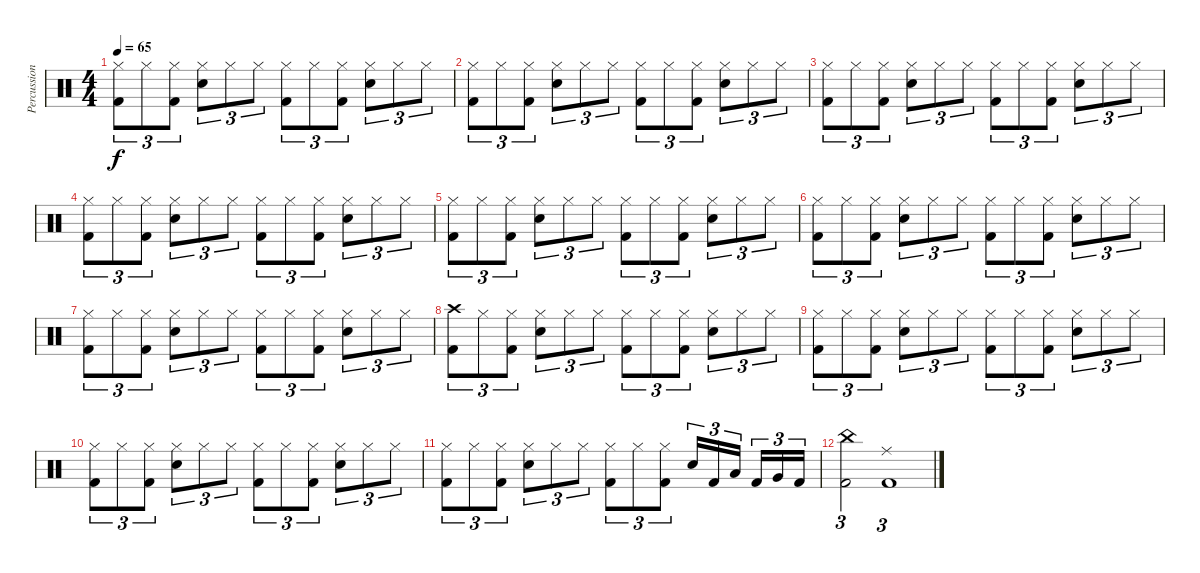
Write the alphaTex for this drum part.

\track ("Percussion" "Percussion") {instrument percussion}
\staff {score}
\articulation defaults
\ts (4 4)
\tempo 65
\clef neutral
\ks c
("Hi-Hat (closed)" "Kick (hit) 2").8{tu (3 2) dy f} "Hi-Hat (closed)".8{tu (3 2)} ("Hi-Hat (closed)" "Kick (hit) 2").8{tu (3 2)} ("Hi-Hat (closed)" "Snare (hit) 2").8{tu (3 2)} "Hi-Hat (closed)".8{tu (3 2)} "Hi-Hat (closed)".8{tu (3 2)} ("Hi-Hat (closed)" "Kick (hit) 2").8{tu (3 2)} "Hi-Hat (closed)".8{tu (3 2)} ("Hi-Hat (closed)" "Kick (hit) 2").8{tu (3 2)} ("Hi-Hat (closed)" "Snare (hit) 2").8{tu (3 2)} "Hi-Hat (closed)".8{tu (3 2)} "Hi-Hat (closed)".8{tu (3 2)} |
("Hi-Hat (closed)" "Kick (hit) 2").8{tu (3 2)} "Hi-Hat (closed)".8{tu (3 2)} ("Hi-Hat (closed)" "Kick (hit) 2").8{tu (3 2)} ("Hi-Hat (closed)" "Snare (hit) 2").8{tu (3 2)} "Hi-Hat (closed)".8{tu (3 2)} "Hi-Hat (closed)".8{tu (3 2)} ("Hi-Hat (closed)" "Kick (hit) 2").8{tu (3 2)} "Hi-Hat (closed)".8{tu (3 2)} ("Hi-Hat (closed)" "Kick (hit) 2").8{tu (3 2)} ("Hi-Hat (closed)" "Snare (hit) 2").8{tu (3 2)} "Hi-Hat (closed)".8{tu (3 2)} "Hi-Hat (closed)".8{tu (3 2)} |
("Hi-Hat (closed)" "Kick (hit) 2").8{tu (3 2)} "Hi-Hat (closed)".8{tu (3 2)} ("Hi-Hat (closed)" "Kick (hit) 2").8{tu (3 2)} ("Hi-Hat (closed)" "Snare (hit) 2").8{tu (3 2)} "Hi-Hat (closed)".8{tu (3 2)} "Hi-Hat (closed)".8{tu (3 2)} ("Hi-Hat (closed)" "Kick (hit) 2").8{tu (3 2)} "Hi-Hat (closed)".8{tu (3 2)} ("Hi-Hat (closed)" "Kick (hit) 2").8{tu (3 2)} ("Hi-Hat (closed)" "Snare (hit) 2").8{tu (3 2)} "Hi-Hat (closed)".8{tu (3 2)} "Hi-Hat (closed)".8{tu (3 2)} |
("Hi-Hat (closed)" "Kick (hit) 2").8{tu (3 2)} "Hi-Hat (closed)".8{tu (3 2)} ("Hi-Hat (closed)" "Kick (hit) 2").8{tu (3 2)} ("Hi-Hat (closed)" "Snare (hit) 2").8{tu (3 2)} "Hi-Hat (closed)".8{tu (3 2)} "Hi-Hat (closed)".8{tu (3 2)} ("Hi-Hat (closed)" "Kick (hit) 2").8{tu (3 2)} "Hi-Hat (closed)".8{tu (3 2)} ("Hi-Hat (closed)" "Kick (hit) 2").8{tu (3 2)} ("Hi-Hat (closed)" "Snare (hit) 2").8{tu (3 2)} "Hi-Hat (closed)".8{tu (3 2)} "Hi-Hat (closed)".8{tu (3 2)} |
("Hi-Hat (closed)" "Kick (hit) 2").8{tu (3 2)} "Hi-Hat (closed)".8{tu (3 2)} ("Hi-Hat (closed)" "Kick (hit) 2").8{tu (3 2)} ("Hi-Hat (closed)" "Snare (hit) 2").8{tu (3 2)} "Hi-Hat (closed)".8{tu (3 2)} "Hi-Hat (closed)".8{tu (3 2)} ("Hi-Hat (closed)" "Kick (hit) 2").8{tu (3 2)} "Hi-Hat (closed)".8{tu (3 2)} ("Hi-Hat (closed)" "Kick (hit) 2").8{tu (3 2)} ("Hi-Hat (closed)" "Snare (hit) 2").8{tu (3 2)} "Hi-Hat (closed)".8{tu (3 2)} "Hi-Hat (closed)".8{tu (3 2)} |
("Hi-Hat (closed)" "Kick (hit) 2").8{tu (3 2)} "Hi-Hat (closed)".8{tu (3 2)} ("Hi-Hat (closed)" "Kick (hit) 2").8{tu (3 2)} ("Hi-Hat (closed)" "Snare (hit) 2").8{tu (3 2)} "Hi-Hat (closed)".8{tu (3 2)} "Hi-Hat (closed)".8{tu (3 2)} ("Hi-Hat (closed)" "Kick (hit) 2").8{tu (3 2)} "Hi-Hat (closed)".8{tu (3 2)} ("Hi-Hat (closed)" "Kick (hit) 2").8{tu (3 2)} ("Hi-Hat (closed)" "Snare (hit) 2").8{tu (3 2)} "Hi-Hat (closed)".8{tu (3 2)} "Hi-Hat (closed)".8{tu (3 2)} |
("Hi-Hat (closed)" "Kick (hit) 2").8{tu (3 2)} "Hi-Hat (closed)".8{tu (3 2)} ("Hi-Hat (closed)" "Kick (hit) 2").8{tu (3 2)} ("Hi-Hat (closed)" "Snare (hit) 2").8{tu (3 2)} "Hi-Hat (closed)".8{tu (3 2)} "Hi-Hat (closed)".8{tu (3 2)} ("Hi-Hat (closed)" "Kick (hit) 2").8{tu (3 2)} "Hi-Hat (closed)".8{tu (3 2)} ("Hi-Hat (closed)" "Kick (hit) 2").8{tu (3 2)} ("Hi-Hat (closed)" "Snare (hit) 2").8{tu (3 2)} "Hi-Hat (closed)".8{tu (3 2)} "Hi-Hat (closed)".8{tu (3 2)} |
("Crash high (hit)" "Kick (hit) 2").8{tu (3 2)} "Hi-Hat (closed)".8{tu (3 2)} ("Hi-Hat (closed)" "Kick (hit) 2").8{tu (3 2)} ("Hi-Hat (closed)" "Snare (hit) 2").8{tu (3 2)} "Hi-Hat (closed)".8{tu (3 2)} "Hi-Hat (closed)".8{tu (3 2)} ("Hi-Hat (closed)" "Kick (hit) 2").8{tu (3 2)} "Hi-Hat (closed)".8{tu (3 2)} ("Hi-Hat (closed)" "Kick (hit) 2").8{tu (3 2)} ("Hi-Hat (closed)" "Snare (hit) 2").8{tu (3 2)} "Hi-Hat (closed)".8{tu (3 2)} "Hi-Hat (closed)".8{tu (3 2)} |
("Hi-Hat (closed)" "Kick (hit) 2").8{tu (3 2)} "Hi-Hat (closed)".8{tu (3 2)} ("Hi-Hat (closed)" "Kick (hit) 2").8{tu (3 2)} ("Hi-Hat (closed)" "Snare (hit) 2").8{tu (3 2)} "Hi-Hat (closed)".8{tu (3 2)} "Hi-Hat (closed)".8{tu (3 2)} ("Hi-Hat (closed)" "Kick (hit) 2").8{tu (3 2)} "Hi-Hat (closed)".8{tu (3 2)} ("Hi-Hat (closed)" "Kick (hit) 2").8{tu (3 2)} ("Hi-Hat (closed)" "Snare (hit) 2").8{tu (3 2)} "Hi-Hat (closed)".8{tu (3 2)} "Hi-Hat (closed)".8{tu (3 2)} |
("Hi-Hat (closed)" "Kick (hit) 2").8{tu (3 2)} "Hi-Hat (closed)".8{tu (3 2)} ("Hi-Hat (closed)" "Kick (hit) 2").8{tu (3 2)} ("Hi-Hat (closed)" "Snare (hit) 2").8{tu (3 2)} "Hi-Hat (closed)".8{tu (3 2)} "Hi-Hat (closed)".8{tu (3 2)} ("Hi-Hat (closed)" "Kick (hit) 2").8{tu (3 2)} "Hi-Hat (closed)".8{tu (3 2)} ("Hi-Hat (closed)" "Kick (hit) 2").8{tu (3 2)} ("Hi-Hat (closed)" "Snare (hit) 2").8{tu (3 2)} "Hi-Hat (closed)".8{tu (3 2)} "Hi-Hat (closed)".8{tu (3 2)} |
("Hi-Hat (closed)" "Kick (hit) 2").8{tu (3 2)} "Hi-Hat (closed)".8{tu (3 2)} ("Hi-Hat (closed)" "Kick (hit) 2").8{tu (3 2)} ("Hi-Hat (closed)" "Snare (hit) 2").8{tu (3 2)} "Hi-Hat (closed)".8{tu (3 2)} "Hi-Hat (closed)".8{tu (3 2)} ("Hi-Hat (closed)" "Kick (hit) 2").8{tu (3 2)} "Hi-Hat (closed)".8{tu (3 2)} ("Hi-Hat (closed)" "Kick (hit) 2").8{tu (3 2)} "Snare (hit) 2".16{tu (3 2)} "Kick (hit) 2".16{tu (3 2)} "Low Tom (hit)".16{tu (3 2) beam splitsecondary} "Kick (hit) 2".16{tu (3 2)} "Very Low Tom (hit)".16{tu (3 2)} "Kick (hit) 2".16{tu (3 2)} |
("China (hit)" "Kick (hit) 2").2{tu (3 2)} ("Ride (middle)" "Kick (hit) 2").1{tu (3 2)}
